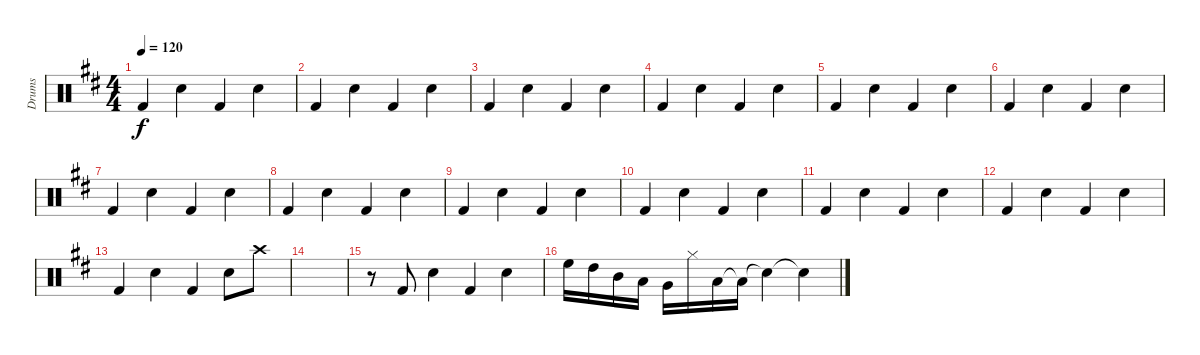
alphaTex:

\track ("Drums" "Drums") {instrument percussion}
\staff {score}
\articulation defaults
\ts (4 4)
\tempo 120
\clef neutral
\ks d "Kick (hit) 2".4{dy f} "Snare (hit) 2".4 "Kick (hit) 2".4 "Snare (hit) 2".4
|
"Kick (hit) 2".4 "Snare (hit) 2".4 "Kick (hit) 2".4 "Snare (hit) 2".4 |
"Kick (hit) 2".4 "Snare (hit) 2".4 "Kick (hit) 2".4 "Snare (hit) 2".4 |
"Kick (hit) 2".4 "Snare (hit) 2".4 "Kick (hit) 2".4 "Snare (hit) 2".4 |
"Kick (hit) 2".4 "Snare (hit) 2".4 "Kick (hit) 2".4 "Snare (hit) 2".4 |
"Kick (hit) 2".4 "Snare (hit) 2".4 "Kick (hit) 2".4 "Snare (hit) 2".4 |
"Kick (hit) 2".4 "Snare (hit) 2".4 "Kick (hit) 2".4 "Snare (hit) 2".4 |
"Kick (hit) 2".4 "Snare (hit) 2".4 "Kick (hit) 2".4 "Snare (hit) 2".4 |
"Kick (hit) 2".4 "Snare (hit) 2".4 "Kick (hit) 2".4 "Snare (hit) 2".4 |
"Kick (hit) 2".4 "Snare (hit) 2".4 "Kick (hit) 2".4 "Snare (hit) 2".4 |
"Kick (hit) 2".4 "Snare (hit) 2".4 "Kick (hit) 2".4 "Snare (hit) 2".4 |
"Kick (hit) 2".4 "Snare (hit) 2".4 "Kick (hit) 2".4 "Snare (hit) 2".4 |
"Kick (hit) 2".4 "Snare (hit) 2".4 "Kick (hit) 2".4 "Snare (hit) 2".8 "Crash high (hit)".8 |
|
r.8 "Kick (hit) 2".8 "Snare (hit) 2".4 "Kick (hit) 2".4 "Snare (hit) 2".4 |
"High Floor Tom (hit)".16 "High Tom (hit)".16 "Mid Tom (hit)".16 "Low Tom (hit)".16 "Very Low Tom (hit)".16 "Hi-Hat (closed)".16 "Low Floor Tom (hit)".16 "Low Floor Tom (hit)"{t}.16 "Snare (hit) 2"{t}.4 "Snare (hit) 2"{t}.4
